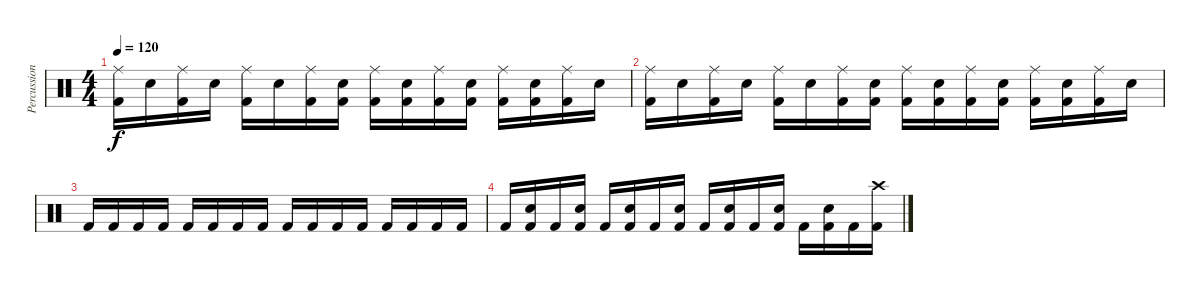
\track ("Percussion" "Percussion") {instrument percussion}
\staff {score}
\articulation defaults
\ts (4 4)
\tempo 120
\clef neutral
\ks c
("Ride (middle)" "Kick (hit) 2").16{dy f} "Snare (hit) 2".16 ("Ride (middle)" "Kick (hit) 2").16 "Snare (hit) 2".16 ("Ride (middle)" "Kick (hit) 2").16 "Snare (hit) 2".16 ("Ride (middle)" "Kick (hit) 2").16 ("Snare (hit) 2" "Kick (hit) 2").16 ("Ride (middle)" "Kick (hit) 2").16 ("Snare (hit) 2" "Kick (hit) 2").16 ("Ride (middle)" "Kick (hit) 2").16 ("Snare (hit) 2" "Kick (hit) 2").16 ("Ride (middle)" "Kick (hit) 2").16 ("Snare (hit) 2" "Kick (hit) 2").16 ("Ride (middle)" "Kick (hit) 2").16 "Snare (hit) 2".16 |
("Ride (middle)" "Kick (hit) 2").16 "Snare (hit) 2".16 ("Ride (middle)" "Kick (hit) 2").16 "Snare (hit) 2".16 ("Ride (middle)" "Kick (hit) 2").16 "Snare (hit) 2".16 ("Ride (middle)" "Kick (hit) 2").16 ("Snare (hit) 2" "Kick (hit) 2").16 ("Ride (middle)" "Kick (hit) 2").16 ("Snare (hit) 2" "Kick (hit) 2").16 ("Ride (middle)" "Kick (hit) 2").16 ("Snare (hit) 2" "Kick (hit) 2").16 ("Ride (middle)" "Kick (hit) 2").16 ("Snare (hit) 2" "Kick (hit) 2").16 ("Ride (middle)" "Kick (hit) 2").16 "Snare (hit) 2".16 |
"Kick (hit) 2".16 "Kick (hit) 2".16 "Kick (hit) 2".16 "Kick (hit) 2".16 "Kick (hit) 2".16 "Kick (hit) 2".16 "Kick (hit) 2".16 "Kick (hit) 2".16 "Kick (hit) 2".16 "Kick (hit) 2".16 "Kick (hit) 2".16 "Kick (hit) 2".16 "Kick (hit) 2".16 "Kick (hit) 2".16 "Kick (hit) 2".16 "Kick (hit) 2".16 |
"Kick (hit) 2".16 ("Snare (hit) 2" "Kick (hit) 2").16 "Kick (hit) 2".16 ("Snare (hit) 2" "Kick (hit) 2").16 "Kick (hit) 2".16 ("Snare (hit) 2" "Kick (hit) 2").16 "Kick (hit) 2".16 ("Snare (hit) 2" "Kick (hit) 2").16 "Kick (hit) 2".16 ("Snare (hit) 2" "Kick (hit) 2").16 "Kick (hit) 2".16 ("Snare (hit) 2" "Kick (hit) 2").16 "Kick (hit) 2".16 ("Snare (hit) 2" "Kick (hit) 2").16 "Kick (hit) 2".16 ("Crash high (hit)" "Kick (hit) 2").16
